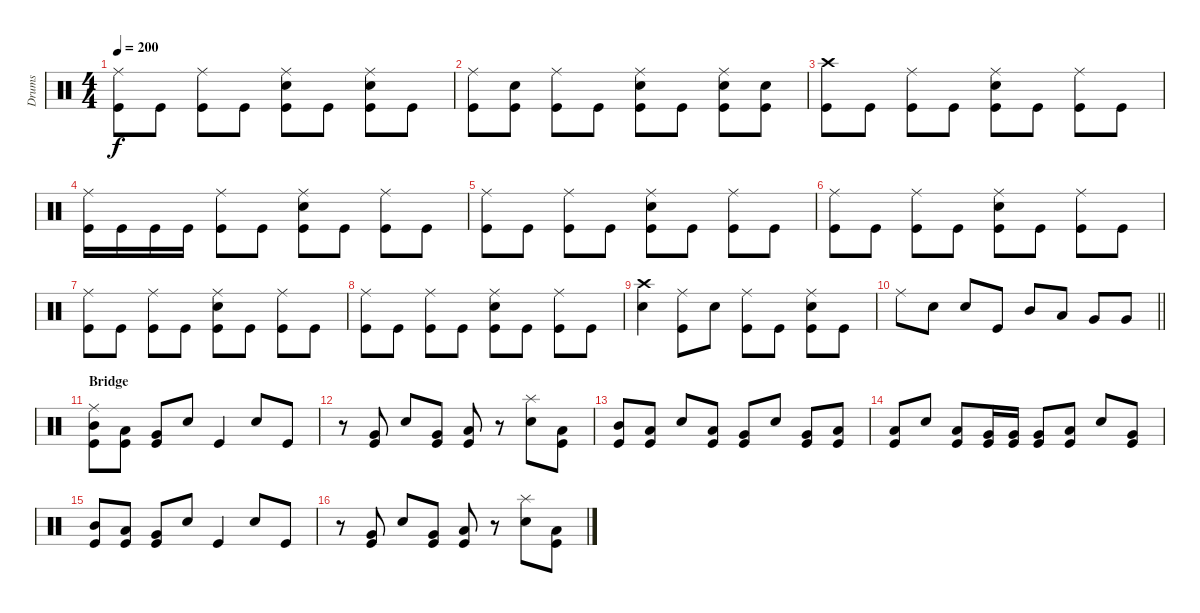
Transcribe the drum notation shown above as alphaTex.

\track ("Drums" "Drums") {instrument percussion}
\staff {score}
\articulation defaults
\ts (4 4)
\tempo 200
\clef neutral
\ks c
("Ride (middle)" "Kick (hit)").8{dy f} "Kick (hit)".8 ("Ride (middle)" "Kick (hit)").8 "Kick (hit)".8 ("Ride (middle)" "Snare (hit) 2" "Kick (hit)").8 "Kick (hit)".8 ("Ride (middle)" "Snare (hit) 2" "Kick (hit)").8 "Kick (hit)".8 |
("Ride (middle)" "Kick (hit)").8 ("Snare (hit) 2" "Kick (hit)").8 ("Ride (middle)" "Kick (hit)").8 "Kick (hit)".8 ("Ride (middle)" "Snare (hit) 2" "Kick (hit)").8 "Kick (hit)".8 ("Ride (middle)" "Snare (hit) 2" "Kick (hit)").8 ("Snare (hit) 2" "Kick (hit)").8 |
("Crash high (hit)" "Kick (hit)").8 "Kick (hit)".8 ("Ride (middle)" "Kick (hit)").8 "Kick (hit)".8 ("Ride (middle)" "Snare (hit) 2" "Kick (hit)").8 "Kick (hit)".8 ("Ride (middle)" "Kick (hit)").8 "Kick (hit)".8 |
("Ride (middle)" "Kick (hit)").16 "Kick (hit)".16 "Kick (hit)".16 "Kick (hit)".16 ("Ride (middle)" "Kick (hit)").8 "Kick (hit)".8 ("Snare (hit) 2" "Ride (middle)" "Kick (hit)").8 "Kick (hit)".8 ("Ride (middle)" "Kick (hit)").8 "Kick (hit)".8 |
("Ride (middle)" "Kick (hit)").8 "Kick (hit)".8 ("Ride (middle)" "Kick (hit)").8 "Kick (hit)".8 ("Ride (middle)" "Snare (hit) 2" "Kick (hit)").8 "Kick (hit)".8 ("Ride (middle)" "Kick (hit)").8 "Kick (hit)".8 |
("Ride (middle)" "Kick (hit)").8 "Kick (hit)".8 ("Ride (middle)" "Kick (hit)").8 "Kick (hit)".8 ("Ride (middle)" "Snare (hit) 2" "Kick (hit)").8 "Kick (hit)".8 ("Ride (middle)" "Kick (hit)").8 "Kick (hit)".8 |
("Ride (middle)" "Kick (hit)").8 "Kick (hit)".8 ("Ride (middle)" "Kick (hit)").8 "Kick (hit)".8 ("Ride (middle)" "Snare (hit) 2" "Kick (hit)").8 "Kick (hit)".8 ("Ride (middle)" "Kick (hit)").8 "Kick (hit)".8 |
("Ride (middle)" "Kick (hit)").8 "Kick (hit)".8 ("Ride (middle)" "Kick (hit)").8 "Kick (hit)".8 ("Ride (middle)" "Snare (hit) 2" "Kick (hit)").8 "Kick (hit)".8 ("Ride (middle)" "Kick (hit)").8 "Kick (hit)".8 |
("Crash high (hit)" "Snare (hit) 2").4 ("Ride (middle)" "Kick (hit)").8 "Snare (hit) 2".8 ("Ride (middle)" "Kick (hit)").8 "Kick (hit)".8 ("Ride (middle)" "Snare (hit) 2" "Kick (hit)").8 "Kick (hit)".8 |
\barLineRight lightlight "Ride (middle)".8 "Snare (hit) 2".8 "Snare (hit) 2".8 "Kick (hit)".8 "Mid Tom (hit)".8 "Low Tom (hit)".8 "Very Low Tom (hit)".8 "Very Low Tom (hit)".8
|
\section ("" "Bridge")
("Ride (middle)" "Mid Tom (hit)" "Kick (hit)").8 ("Low Tom (hit)" "Kick (hit)").8 ("Very Low Tom (hit)" "Kick (hit)").8 "Snare (hit) 2".8 "Kick (hit)".4 "Snare (hit) 2".8 "Kick (hit)".8 |
r.8 ("Very Low Tom (hit)" "Kick (hit)").8 "Snare (hit) 2".8 ("Very Low Tom (hit)" "Kick (hit)").8 ("Low Floor Tom (hit)" "Kick (hit)").8 r.8 ("Splash (hit)" "Snare (hit) 2").8 ("Low Floor Tom (hit)" "Kick (hit)").8 |
("Mid Tom (hit)" "Kick (hit)").8 ("Low Tom (hit)" "Kick (hit)").8 "Snare (hit) 2".8 ("Low Tom (hit)" "Kick (hit)").8 ("Very Low Tom (hit)" "Kick (hit)").8 "Snare (hit) 2".8 ("Very Low Tom (hit)" "Kick (hit)").8 ("Low Floor Tom (hit)" "Kick (hit)").8 |
("Low Tom (hit)" "Kick (hit)").8 "Snare (hit) 2".8 ("Low Tom (hit)" "Kick (hit)").8 ("Very Low Tom (hit)" "Kick (hit)").16 ("Very Low Tom (hit)" "Kick (hit)").16 ("Very Low Tom (hit)" "Kick (hit)").8 ("Low Floor Tom (hit)" "Kick (hit)").8 "Snare (hit) 2".8 ("Very Low Tom (hit)" "Kick (hit)").8 |
("Mid Tom (hit)" "Kick (hit)").8 ("Low Tom (hit)" "Kick (hit)").8 ("Very Low Tom (hit)" "Kick (hit)").8 "Snare (hit) 2".8 "Kick (hit)".4 "Snare (hit) 2".8 "Kick (hit)".8 |
r.8 ("Very Low Tom (hit)" "Kick (hit)").8 "Snare (hit) 2".8 ("Very Low Tom (hit)" "Kick (hit)").8 ("Low Floor Tom (hit)" "Kick (hit)").8 r.8 ("Splash (hit)" "Snare (hit) 2").8 ("Low Floor Tom (hit)" "Kick (hit)").8
